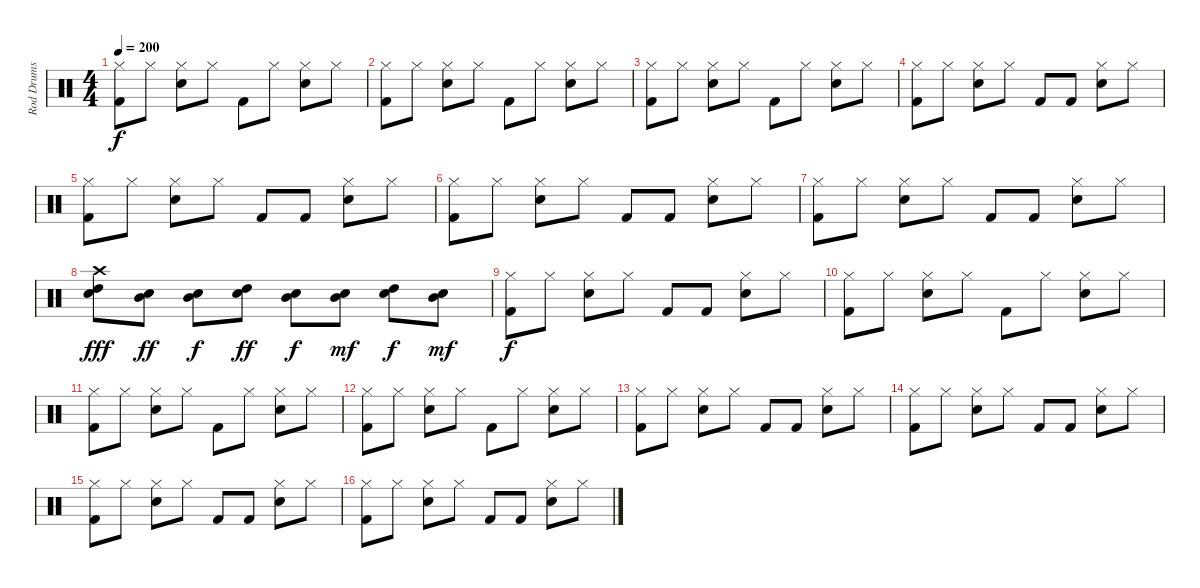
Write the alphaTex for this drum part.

\track ("Rod Drums" "Rod Drums") {instrument percussion}
\staff {score}
\articulation defaults
\ts (4 4)
\tempo 200
\clef neutral
\ks c
("Kick (hit) 2" "Hi-Hat (closed)").8{dy f} "Hi-Hat (closed)".8 ("Snare (hit) 2" "Hi-Hat (closed)").8 "Hi-Hat (closed)".8 "Kick (hit) 2".8 "Hi-Hat (closed)".8 ("Snare (hit) 2" "Hi-Hat (closed)").8 "Hi-Hat (closed)".8 |
("Kick (hit) 2" "Hi-Hat (closed)").8 "Hi-Hat (closed)".8 ("Snare (hit) 2" "Hi-Hat (closed)").8 "Hi-Hat (closed)".8 "Kick (hit) 2".8 "Hi-Hat (closed)".8 ("Snare (hit) 2" "Hi-Hat (closed)").8 "Hi-Hat (closed)".8 |
("Kick (hit) 2" "Hi-Hat (closed)").8 "Hi-Hat (closed)".8 ("Snare (hit) 2" "Hi-Hat (closed)").8 "Hi-Hat (closed)".8 "Kick (hit) 2".8 "Hi-Hat (closed)".8 ("Snare (hit) 2" "Hi-Hat (closed)").8 "Hi-Hat (closed)".8 |
("Kick (hit) 2" "Hi-Hat (closed)").8 "Hi-Hat (closed)".8 ("Snare (hit) 2" "Hi-Hat (closed)").8 "Hi-Hat (closed)".8 "Kick (hit) 2".8 "Kick (hit) 2".8 ("Snare (hit) 2" "Hi-Hat (closed)").8 "Hi-Hat (closed)".8 |
("Kick (hit) 2" "Hi-Hat (closed)").8 "Hi-Hat (closed)".8 ("Snare (hit) 2" "Hi-Hat (closed)").8 "Hi-Hat (closed)".8 "Kick (hit) 2".8 "Kick (hit) 2".8 ("Snare (hit) 2" "Hi-Hat (closed)").8 "Hi-Hat (closed)".8 |
("Kick (hit) 2" "Hi-Hat (closed)").8 "Hi-Hat (closed)".8 ("Snare (hit) 2" "Hi-Hat (closed)").8 "Hi-Hat (closed)".8 "Kick (hit) 2".8 "Kick (hit) 2".8 ("Snare (hit) 2" "Hi-Hat (closed)").8 "Hi-Hat (closed)".8 |
("Kick (hit) 2" "Hi-Hat (closed)").8 "Hi-Hat (closed)".8 ("Snare (hit) 2" "Hi-Hat (closed)").8 "Hi-Hat (closed)".8 "Kick (hit) 2".8 "Kick (hit) 2".8 ("Snare (hit) 2" "Hi-Hat (closed)").8 "Hi-Hat (closed)".8 |
("Snare (hit) 2" "High Tom (hit)" "Crash high (hit)").8{dy fff} ("Snare (hit) 2" "Mid Tom (hit)").8{dy ff} ("Snare (hit) 2" "Mid Tom (hit)").8{dy f} ("Snare (hit) 2" "High Tom (hit)").8{dy ff} ("Snare (hit) 2" "Mid Tom (hit)").8{dy f} ("Snare (hit) 2" "Mid Tom (hit)").8{dy mf} ("Snare (hit) 2" "High Tom (hit)").8{dy f} ("Snare (hit) 2" "Mid Tom (hit)").8{dy mf} |
("Kick (hit) 2" "Hi-Hat (closed)").8{dy f} "Hi-Hat (closed)".8 ("Snare (hit) 2" "Hi-Hat (closed)").8 "Hi-Hat (closed)".8 "Kick (hit) 2".8 "Kick (hit) 2".8 ("Snare (hit) 2" "Hi-Hat (closed)").8 "Hi-Hat (closed)".8 |
("Kick (hit) 2" "Hi-Hat (closed)").8 "Hi-Hat (closed)".8 ("Snare (hit) 2" "Hi-Hat (closed)").8 "Hi-Hat (closed)".8 "Kick (hit) 2".8 "Hi-Hat (closed)".8 ("Snare (hit) 2" "Hi-Hat (closed)").8 "Hi-Hat (closed)".8 |
("Kick (hit) 2" "Hi-Hat (closed)").8 "Hi-Hat (closed)".8 ("Snare (hit) 2" "Hi-Hat (closed)").8 "Hi-Hat (closed)".8 "Kick (hit) 2".8 "Hi-Hat (closed)".8 ("Snare (hit) 2" "Hi-Hat (closed)").8 "Hi-Hat (closed)".8 |
("Kick (hit) 2" "Hi-Hat (closed)").8 "Hi-Hat (closed)".8 ("Snare (hit) 2" "Hi-Hat (closed)").8 "Hi-Hat (closed)".8 "Kick (hit) 2".8 "Hi-Hat (closed)".8 ("Snare (hit) 2" "Hi-Hat (closed)").8 "Hi-Hat (closed)".8 |
("Kick (hit) 2" "Hi-Hat (closed)").8 "Hi-Hat (closed)".8 ("Snare (hit) 2" "Hi-Hat (closed)").8 "Hi-Hat (closed)".8 "Kick (hit) 2".8 "Kick (hit) 2".8 ("Snare (hit) 2" "Hi-Hat (closed)").8 "Hi-Hat (closed)".8 |
("Kick (hit) 2" "Hi-Hat (closed)").8 "Hi-Hat (closed)".8 ("Snare (hit) 2" "Hi-Hat (closed)").8 "Hi-Hat (closed)".8 "Kick (hit) 2".8 "Kick (hit) 2".8 ("Snare (hit) 2" "Hi-Hat (closed)").8 "Hi-Hat (closed)".8 |
("Kick (hit) 2" "Hi-Hat (closed)").8 "Hi-Hat (closed)".8 ("Snare (hit) 2" "Hi-Hat (closed)").8 "Hi-Hat (closed)".8 "Kick (hit) 2".8 "Kick (hit) 2".8 ("Snare (hit) 2" "Hi-Hat (closed)").8 "Hi-Hat (closed)".8 |
("Kick (hit) 2" "Hi-Hat (closed)").8 "Hi-Hat (closed)".8 ("Snare (hit) 2" "Hi-Hat (closed)").8 "Hi-Hat (closed)".8 "Kick (hit) 2".8 "Kick (hit) 2".8 ("Snare (hit) 2" "Hi-Hat (closed)").8 "Hi-Hat (closed)".8
